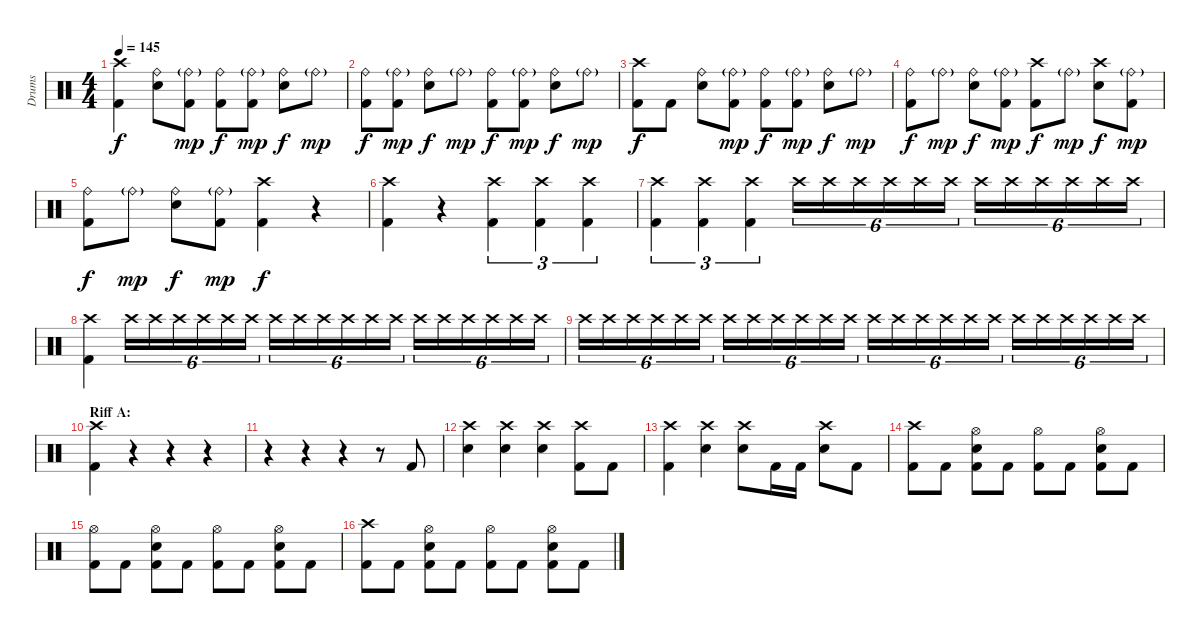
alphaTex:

\track ("Drums" "Drums") {instrument percussion}
\staff {score}
\articulation defaults
\ts (4 4)
\tempo 145
\clef neutral
\ks c
("Crash high (hit)" "Kick (hit) 2").4{dy f} ("Ride (bell)" "Electric Snare (hit)").8 ("Ride (bell)"{g} "Kick (hit) 2").8{dy mp} ("Ride (bell)" "Kick (hit) 2").8{dy f} ("Ride (bell)"{g} "Kick (hit) 2").8{dy mp} ("Ride (bell)" "Electric Snare (hit)").8{dy f} "Ride (bell)"{g}.8{dy mp} |
("Ride (bell)" "Kick (hit) 2").8{dy f} ("Ride (bell)"{g} "Kick (hit) 2").8{dy mp} ("Ride (bell)" "Electric Snare (hit)").8{dy f} "Ride (bell)"{g}.8{dy mp} ("Ride (bell)" "Kick (hit) 2").8{dy f} ("Ride (bell)"{g} "Kick (hit) 2").8{dy mp} ("Ride (bell)" "Electric Snare (hit)").8{dy f} "Ride (bell)"{g}.8{dy mp} |
("Crash high (hit)" "Kick (hit) 2").8{dy f} "Kick (hit) 2".8 ("Ride (bell)" "Electric Snare (hit)").8 ("Ride (bell)"{g} "Kick (hit) 2").8{dy mp} ("Ride (bell)" "Kick (hit) 2").8{dy f} ("Ride (bell)"{g} "Kick (hit) 2").8{dy mp} ("Ride (bell)" "Electric Snare (hit)").8{dy f} "Ride (bell)"{g}.8{dy mp} |
("Ride (bell)" "Kick (hit) 2").8{dy f} "Ride (bell)"{g}.8{dy mp} ("Ride (bell)" "Electric Snare (hit)").8{dy f} ("Ride (bell)"{g} "Kick (hit) 2").8{dy mp} ("Crash high (hit)" "Kick (hit) 2").8{dy f} "Ride (bell)"{g}.8{dy mp} ("Crash high (hit)" "Electric Snare (hit)").8{dy f} ("Ride (bell)"{g} "Kick (hit) 2").8{dy mp} |
("Ride (bell)" "Kick (hit) 2").8{dy f} "Ride (bell)"{g}.8{dy mp} ("Ride (bell)" "Electric Snare (hit)").8{dy f} ("Ride (bell)"{g} "Kick (hit) 2").8{dy mp} ("Crash high (hit)" "Kick (hit) 2").4{dy f} r.4 |
("Crash high (hit)" "Kick (hit) 2").4 r.4 ("Crash high (hit)" "Kick (hit) 2").4{tu (3 2)} ("Crash high (hit)" "Kick (hit) 2").4{tu (3 2)} ("Crash high (hit)" "Kick (hit) 2").4{tu (3 2)} |
("Crash high (hit)" "Kick (hit) 2").4{tu (3 2)} ("Crash high (hit)" "Kick (hit) 2").4{tu (3 2)} ("Crash high (hit)" "Kick (hit) 2").4{tu (3 2)} "Crash high (hit)".16{tu (6 4)} "Crash high (hit)".16{tu (6 4)} "Crash high (hit)".16{tu (6 4)} "Crash high (hit)".16{tu (6 4)} "Crash high (hit)".16{tu (6 4)} "Crash high (hit)".16{tu (6 4)} "Crash high (hit)".16{tu (6 4)} "Crash high (hit)".16{tu (6 4)} "Crash high (hit)".16{tu (6 4)} "Crash high (hit)".16{tu (6 4)} "Crash high (hit)".16{tu (6 4)} "Crash high (hit)".16{tu (6 4)} |
("Crash high (hit)" "Kick (hit) 2").4 "Crash high (hit)".16{tu (6 4)} "Crash high (hit)".16{tu (6 4)} "Crash high (hit)".16{tu (6 4)} "Crash high (hit)".16{tu (6 4)} "Crash high (hit)".16{tu (6 4)} "Crash high (hit)".16{tu (6 4)} "Crash high (hit)".16{tu (6 4)} "Crash high (hit)".16{tu (6 4)} "Crash high (hit)".16{tu (6 4)} "Crash high (hit)".16{tu (6 4)} "Crash high (hit)".16{tu (6 4)} "Crash high (hit)".16{tu (6 4)} "Crash high (hit)".16{tu (6 4)} "Crash high (hit)".16{tu (6 4)} "Crash high (hit)".16{tu (6 4)} "Crash high (hit)".16{tu (6 4)} "Crash high (hit)".16{tu (6 4)} "Crash high (hit)".16{tu (6 4)} |
"Crash high (hit)".16{tu (6 4)} "Crash high (hit)".16{tu (6 4)} "Crash high (hit)".16{tu (6 4)} "Crash high (hit)".16{tu (6 4)} "Crash high (hit)".16{tu (6 4)} "Crash high (hit)".16{tu (6 4)} "Crash high (hit)".16{tu (6 4)} "Crash high (hit)".16{tu (6 4)} "Crash high (hit)".16{tu (6 4)} "Crash high (hit)".16{tu (6 4)} "Crash high (hit)".16{tu (6 4)} "Crash high (hit)".16{tu (6 4)} "Crash high (hit)".16{tu (6 4)} "Crash high (hit)".16{tu (6 4)} "Crash high (hit)".16{tu (6 4)} "Crash high (hit)".16{tu (6 4)} "Crash high (hit)".16{tu (6 4)} "Crash high (hit)".16{tu (6 4)} "Crash high (hit)".16{tu (6 4)} "Crash high (hit)".16{tu (6 4)} "Crash high (hit)".16{tu (6 4)} "Crash high (hit)".16{tu (6 4)} "Crash high (hit)".16{tu (6 4)} "Crash high (hit)".16{tu (6 4)} |
\section ("" "Riff A:")
("Crash high (hit)" "Kick (hit) 2").4 r.4 r.4 r.4 |
r.4 r.4 r.4 r.8 "Kick (hit) 2".8 |
("Crash high (hit)" "Electric Snare (hit)").4 ("Crash high (hit)" "Electric Snare (hit)").4 ("Crash high (hit)" "Electric Snare (hit)").4 ("Crash high (hit)" "Kick (hit) 2").8 "Kick (hit) 2".8 |
("Crash high (hit)" "Kick (hit) 2").4 ("Crash high (hit)" "Electric Snare (hit)").4 ("Crash high (hit)" "Electric Snare (hit)").8 "Kick (hit) 2".16 "Kick (hit) 2".16 ("Crash high (hit)" "Electric Snare (hit)").8 "Kick (hit) 2".8 |
("Crash high (hit)" "Kick (hit) 2").8 "Kick (hit) 2".8 ("Hi-Hat (open)" "Electric Snare (hit)" "Kick (hit) 2").8 "Kick (hit) 2".8 ("Hi-Hat (open)" "Kick (hit) 2").8 "Kick (hit) 2".8 ("Hi-Hat (open)" "Electric Snare (hit)" "Kick (hit) 2").8 "Kick (hit) 2".8 |
("Hi-Hat (open)" "Kick (hit) 2").8 "Kick (hit) 2".8 ("Hi-Hat (open)" "Electric Snare (hit)" "Kick (hit) 2").8 "Kick (hit) 2".8 ("Hi-Hat (open)" "Kick (hit) 2").8 "Kick (hit) 2".8 ("Hi-Hat (open)" "Electric Snare (hit)" "Kick (hit) 2").8 "Kick (hit) 2".8 |
("Crash high (hit)" "Kick (hit) 2").8 "Kick (hit) 2".8 ("Hi-Hat (open)" "Electric Snare (hit)" "Kick (hit) 2").8 "Kick (hit) 2".8 ("Hi-Hat (open)" "Kick (hit) 2").8 "Kick (hit) 2".8 ("Hi-Hat (open)" "Electric Snare (hit)" "Kick (hit) 2").8 "Kick (hit) 2".8
